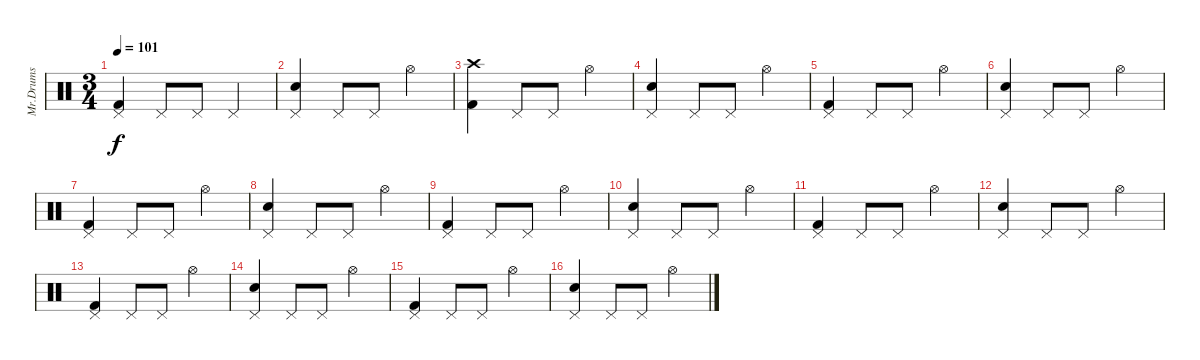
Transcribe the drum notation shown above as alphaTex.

\track ("Mr.Drums" "Mr.Drums") {instrument percussion}
\staff {score}
\articulation defaults
\ts (3 4)
\tempo 101
\clef neutral
\ks c
("Pedal Hi-Hat (hit)" "Kick (hit) 2").4{dy f} "Pedal Hi-Hat (hit)".8 "Pedal Hi-Hat (hit)".8 "Pedal Hi-Hat (hit)".4 |
("Pedal Hi-Hat (hit)" "Electric Snare (hit)").4 "Pedal Hi-Hat (hit)".8 "Pedal Hi-Hat (hit)".8 "Hi-Hat (open)".4 |
("Crash high (hit)" "Kick (hit) 2").4 "Pedal Hi-Hat (hit)".8 "Pedal Hi-Hat (hit)".8 "Hi-Hat (open)".4 |
("Pedal Hi-Hat (hit)" "Electric Snare (hit)").4 "Pedal Hi-Hat (hit)".8 "Pedal Hi-Hat (hit)".8 "Hi-Hat (open)".4 |
("Pedal Hi-Hat (hit)" "Kick (hit) 2").4 "Pedal Hi-Hat (hit)".8 "Pedal Hi-Hat (hit)".8 "Hi-Hat (open)".4 |
("Pedal Hi-Hat (hit)" "Electric Snare (hit)").4 "Pedal Hi-Hat (hit)".8 "Pedal Hi-Hat (hit)".8 "Hi-Hat (open)".4 |
("Pedal Hi-Hat (hit)" "Kick (hit) 2").4 "Pedal Hi-Hat (hit)".8 "Pedal Hi-Hat (hit)".8 "Hi-Hat (open)".4 |
("Pedal Hi-Hat (hit)" "Electric Snare (hit)").4 "Pedal Hi-Hat (hit)".8 "Pedal Hi-Hat (hit)".8 "Hi-Hat (open)".4 |
("Pedal Hi-Hat (hit)" "Kick (hit) 2").4 "Pedal Hi-Hat (hit)".8 "Pedal Hi-Hat (hit)".8 "Hi-Hat (open)".4 |
("Pedal Hi-Hat (hit)" "Electric Snare (hit)").4 "Pedal Hi-Hat (hit)".8 "Pedal Hi-Hat (hit)".8 "Hi-Hat (open)".4 |
("Pedal Hi-Hat (hit)" "Kick (hit) 2").4 "Pedal Hi-Hat (hit)".8 "Pedal Hi-Hat (hit)".8 "Hi-Hat (open)".4 |
("Pedal Hi-Hat (hit)" "Electric Snare (hit)").4 "Pedal Hi-Hat (hit)".8 "Pedal Hi-Hat (hit)".8 "Hi-Hat (open)".4 |
("Pedal Hi-Hat (hit)" "Kick (hit) 2").4 "Pedal Hi-Hat (hit)".8 "Pedal Hi-Hat (hit)".8 "Hi-Hat (open)".4 |
("Pedal Hi-Hat (hit)" "Electric Snare (hit)").4 "Pedal Hi-Hat (hit)".8 "Pedal Hi-Hat (hit)".8 "Hi-Hat (open)".4 |
("Pedal Hi-Hat (hit)" "Kick (hit) 2").4 "Pedal Hi-Hat (hit)".8 "Pedal Hi-Hat (hit)".8 "Hi-Hat (open)".4 |
("Pedal Hi-Hat (hit)" "Electric Snare (hit)").4 "Pedal Hi-Hat (hit)".8 "Pedal Hi-Hat (hit)".8 "Hi-Hat (open)".4
